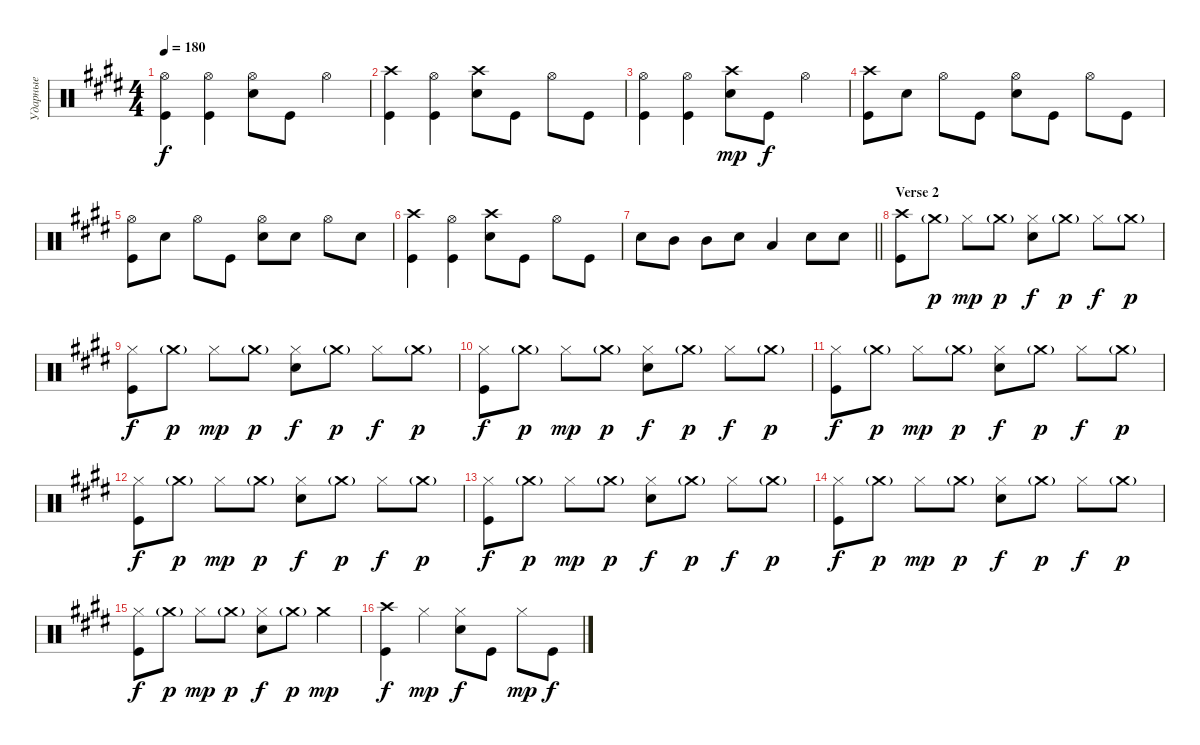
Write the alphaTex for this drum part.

\track ("Ударные" "Ударные") {instrument percussion}
\staff {score}
\articulation defaults
\ts (4 4)
\tempo 180
\clef neutral
\ks c#minor
("Kick (hit)" "Hi-Hat (open)").4{dy f} ("Hi-Hat (open)" "Kick (hit)").4 ("Snare (hit) 2" "Hi-Hat (open)").8 "Kick (hit)".8 "Hi-Hat (open)".4 |
("Kick (hit)" "Crash high (hit)").4 ("Kick (hit)" "Hi-Hat (open)").4 ("Snare (hit) 2" "Crash high (hit)").8 "Kick (hit)".8 "Hi-Hat (open)".8 "Kick (hit)".8 |
("Kick (hit)" "Hi-Hat (open)").4 ("Hi-Hat (open)" "Kick (hit)").4 ("Snare (hit) 2" "Crash high (hit)").8{dy mp} "Kick (hit)".8{dy f} "Hi-Hat (open)".4 |
("Kick (hit)" "Crash high (hit)").8 "Snare (hit) 2".8 "Hi-Hat (open)".8 "Kick (hit)".8 ("Snare (hit) 2" "Hi-Hat (open)").8 "Kick (hit)".8 "Hi-Hat (open)".8 "Kick (hit)".8 |
("Kick (hit)" "Hi-Hat (open)").8 "Snare (hit) 2".8 "Hi-Hat (open)".8 "Kick (hit)".8 ("Snare (hit) 2" "Hi-Hat (open)").8 "Snare (hit) 2".8 "Hi-Hat (open)".8 "Snare (hit) 2".8 |
("Kick (hit)" "Crash high (hit)").4 ("Kick (hit)" "Hi-Hat (open)").4 ("Snare (hit) 2" "Crash high (hit)").8 "Kick (hit)".8 "Hi-Hat (open)".8 "Kick (hit)".8 |
\barLineRight lightlight "Snare (hit) 2".8 "Mid Tom (hit)".8 "Mid Tom (hit)".8 "Snare (hit) 2".8 "Low Tom (hit)".4 "Snare (hit) 2".8 "Snare (hit) 2".8
|
\section ("" "Verse 2")
("Kick (hit)" "Crash high (hit)").8 "Crash medium (hit)"{g}.8{dy p} "Hi-Hat (closed)".8{dy mp} "Crash medium (hit)"{g}.8{dy p} ("Hi-Hat (closed)" "Snare (hit) 2").8{dy f} "Crash medium (hit)"{g}.8{dy p} "Hi-Hat (closed)".8{dy f} "Crash medium (hit)"{g}.8{dy p} |
("Kick (hit)" "Hi-Hat (closed)").8{dy f} "Crash medium (hit)"{g}.8{dy p} "Hi-Hat (closed)".8{dy mp} "Crash medium (hit)"{g}.8{dy p} ("Hi-Hat (closed)" "Snare (hit) 2").8{dy f} "Crash medium (hit)"{g}.8{dy p} "Hi-Hat (closed)".8{dy f} "Crash medium (hit)"{g}.8{dy p} |
("Kick (hit)" "Hi-Hat (closed)").8{dy f} "Crash medium (hit)"{g}.8{dy p} "Hi-Hat (closed)".8{dy mp} "Crash medium (hit)"{g}.8{dy p} ("Hi-Hat (closed)" "Snare (hit) 2").8{dy f} "Crash medium (hit)"{g}.8{dy p} "Hi-Hat (closed)".8{dy f} "Crash medium (hit)"{g}.8{dy p} |
("Kick (hit)" "Hi-Hat (closed)").8{dy f} "Crash medium (hit)"{g}.8{dy p} "Hi-Hat (closed)".8{dy mp} "Crash medium (hit)"{g}.8{dy p} ("Hi-Hat (closed)" "Snare (hit) 2").8{dy f} "Crash medium (hit)"{g}.8{dy p} "Hi-Hat (closed)".8{dy f} "Crash medium (hit)"{g}.8{dy p} |
("Kick (hit)" "Hi-Hat (closed)").8{dy f} "Crash medium (hit)"{g}.8{dy p} "Hi-Hat (closed)".8{dy mp} "Crash medium (hit)"{g}.8{dy p} ("Hi-Hat (closed)" "Snare (hit) 2").8{dy f} "Crash medium (hit)"{g}.8{dy p} "Hi-Hat (closed)".8{dy f} "Crash medium (hit)"{g}.8{dy p} |
("Kick (hit)" "Hi-Hat (closed)").8{dy f} "Crash medium (hit)"{g}.8{dy p} "Hi-Hat (closed)".8{dy mp} "Crash medium (hit)"{g}.8{dy p} ("Hi-Hat (closed)" "Snare (hit) 2").8{dy f} "Crash medium (hit)"{g}.8{dy p} "Hi-Hat (closed)".8{dy f} "Crash medium (hit)"{g}.8{dy p} |
("Kick (hit)" "Hi-Hat (closed)").8{dy f} "Crash medium (hit)"{g}.8{dy p} "Hi-Hat (closed)".8{dy mp} "Crash medium (hit)"{g}.8{dy p} ("Hi-Hat (closed)" "Snare (hit) 2").8{dy f} "Crash medium (hit)"{g}.8{dy p} "Hi-Hat (closed)".8{dy f} "Crash medium (hit)"{g}.8{dy p} |
("Kick (hit)" "Hi-Hat (closed)").8{dy f} "Crash medium (hit)"{g}.8{dy p} "Hi-Hat (closed)".8{dy mp} "Crash medium (hit)"{g}.8{dy p} ("Hi-Hat (closed)" "Snare (hit) 2").8{dy f} "Crash medium (hit)"{g}.8{dy p} "Crash medium (hit)".4{dy mp} |
("Kick (hit)" "Crash high (hit)").4{dy f} "Hi-Hat (closed)".4{dy mp} ("Hi-Hat (closed)" "Snare (hit) 2").8{dy f} "Kick (hit)".8 "Hi-Hat (closed)".8{dy mp} "Kick (hit)".8{dy f}
